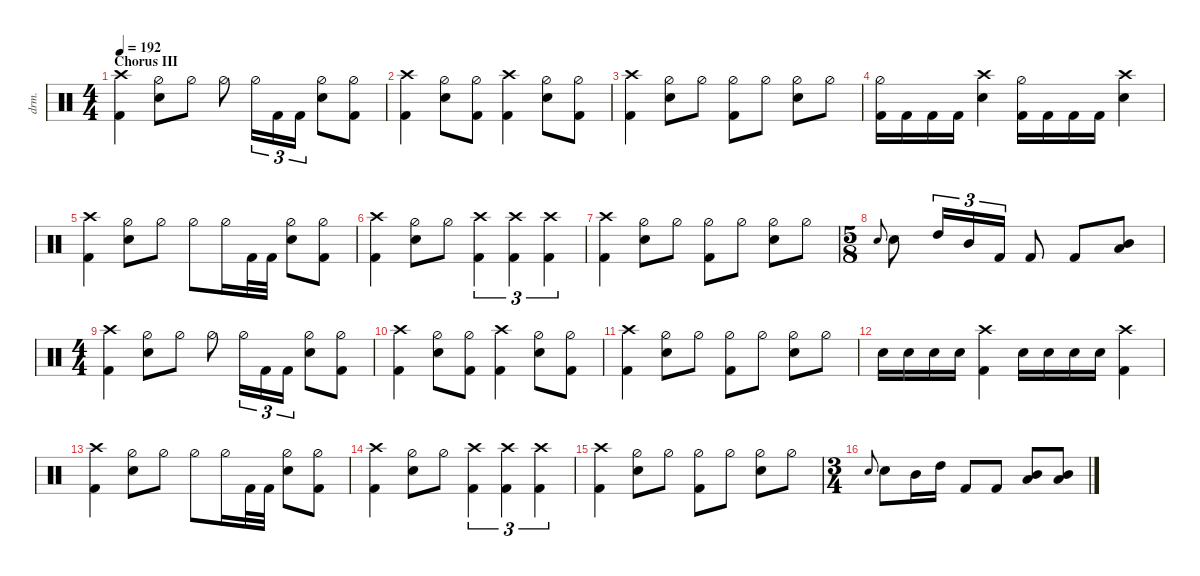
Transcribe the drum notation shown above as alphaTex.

\defaultSystemsLayout 4
\hideDynamics
\bracketExtendMode nobrackets
\otherSystemsTrackNameOrientation horizontal
\track ("Drumkit" "drm.") {defaultSystemsLayout 4 multiBarRest instrument percussion}
\staff
\articulation defaults
\ts (4 4)
\beaming (8 2 2 2 2)
\section ("" "Chorus III")
\tempo 192
\clef neutral
\ks c
("Crash high (hit)" "Kick (hit) 2").4{dy f beam Down} ("Hi-Hat (half)" "Snare (hit) 2").8{beam Down} "Hi-Hat (half)".8{beam Down} "Hi-Hat (half)".8{beam Down} "Hi-Hat (half)".16{tu (3 2) beam Down} "Kick (hit) 2".16{tu (3 2) beam Down} "Kick (hit) 2".16{tu (3 2) beam Down} ("Hi-Hat (half)" "Snare (hit) 2").8{beam Down} ("Hi-Hat (half)" "Kick (hit) 2").8{beam Down} |
("Crash high (hit)" "Kick (hit) 2").4{beam Down} ("Hi-Hat (half)" "Snare (hit) 2").8{beam Down} ("Hi-Hat (half)" "Kick (hit) 2").8{beam Down} ("Crash high (hit)" "Kick (hit) 2").4{beam Down} ("Hi-Hat (half)" "Snare (hit) 2").8{beam Down} ("Hi-Hat (half)" "Kick (hit) 2").8{beam Down} |
("Crash high (hit)" "Kick (hit) 2").4{beam Down} ("Hi-Hat (half)" "Snare (hit) 2").8{beam Down} "Hi-Hat (half)".8{beam Down} ("Hi-Hat (half)" "Kick (hit) 2").8{beam Down} "Hi-Hat (half)".8{beam Down} ("Hi-Hat (half)" "Snare (hit) 2").8{beam Down} "Hi-Hat (half)".8{beam Down} |
("Hi-Hat (half)" "Kick (hit) 2").16{beam Down} "Kick (hit) 2".16{beam Down} "Kick (hit) 2".16{beam Down} "Kick (hit) 2".16{beam Down} ("Crash high (hit)" "Snare (hit) 2").4{beam Down} ("Hi-Hat (half)" "Kick (hit) 2").16{beam Down} "Kick (hit) 2".16{beam Down} "Kick (hit) 2".16{beam Down} "Kick (hit) 2".16{beam Down} ("Crash high (hit)" "Snare (hit) 2").4{beam Down} |
("Crash high (hit)" "Kick (hit) 2").4{beam Down} ("Hi-Hat (half)" "Snare (hit) 2").8{beam Down} "Hi-Hat (half)".8{beam Down} "Hi-Hat (half)".8{beam Down} "Hi-Hat (half)".16{beam Down} "Kick (hit) 2".32{beam Down} "Kick (hit) 2".32{beam Down} ("Hi-Hat (half)" "Snare (hit) 2").8{beam Down} ("Hi-Hat (half)" "Kick (hit) 2").8{beam Down} |
("Crash high (hit)" "Kick (hit) 2").4{beam Down} ("Hi-Hat (half)" "Snare (hit) 2").8{beam Down} "Hi-Hat (half)".8{beam Down} ("Crash high (hit)" "Kick (hit) 2").4{tu (3 2) beam Down} ("Crash high (hit)" "Kick (hit) 2").4{tu (3 2) beam Down} ("Crash high (hit)" "Kick (hit) 2").4{tu (3 2) beam Down} |
("Crash high (hit)" "Kick (hit) 2").4{beam Down} ("Hi-Hat (half)" "Snare (hit) 2").8{beam Down} "Hi-Hat (half)".8{beam Down} ("Hi-Hat (half)" "Kick (hit) 2").8{beam Down} "Hi-Hat (half)".8{beam Down} ("Hi-Hat (half)" "Snare (hit) 2").8{beam Down} "Hi-Hat (half)".8{beam Down} |
\ts (5 8)
\beaming (8 3 2)
"Snare (hit) 2".8{gr onbeat beam Up} "Snare (hit) 2".8{beam Down} "High Tom (hit)".16{tu (3 2) dy fff beam Up} "Mid Tom (hit)".16{tu (3 2) beam Up} "Kick (hit) 2".16{tu (3 2) dy f beam Up} "Kick (hit) 2".8{beam Up} "Kick (hit) 2".8{dy fff beam Up} ("Mid Tom (hit)" "Low Tom (hit)").8{beam Up} |
\ts (4 4)
\beaming (8 2 2 2 2)
("Crash high (hit)" "Kick (hit) 2").4{dy f beam Down} ("Hi-Hat (half)" "Snare (hit) 2").8{beam Down} "Hi-Hat (half)".8{beam Down} "Hi-Hat (half)".8{beam Down} "Hi-Hat (half)".16{tu (3 2) beam Down} "Kick (hit) 2".16{tu (3 2) beam Down} "Kick (hit) 2".16{tu (3 2) beam Down} ("Hi-Hat (half)" "Snare (hit) 2").8{beam Down} ("Hi-Hat (half)" "Kick (hit) 2").8{beam Down} |
("Crash high (hit)" "Kick (hit) 2").4{beam Down} ("Hi-Hat (half)" "Snare (hit) 2").8{beam Down} ("Hi-Hat (half)" "Kick (hit) 2").8{beam Down} ("Crash high (hit)" "Kick (hit) 2").4{beam Down} ("Hi-Hat (half)" "Snare (hit) 2").8{beam Down} ("Hi-Hat (half)" "Kick (hit) 2").8{beam Down} |
("Crash high (hit)" "Kick (hit) 2").4{beam Down} ("Hi-Hat (half)" "Snare (hit) 2").8{beam Down} "Hi-Hat (half)".8{beam Down} ("Hi-Hat (half)" "Kick (hit) 2").8{beam Down} "Hi-Hat (half)".8{beam Down} ("Hi-Hat (half)" "Snare (hit) 2").8{beam Down} "Hi-Hat (half)".8{beam Down} |
"Snare (hit) 2".16{beam Down} "Snare (hit) 2".16{beam Down} "Snare (hit) 2".16{beam Down} "Snare (hit) 2".16{beam Down} ("Crash high (hit)" "Kick (hit) 2").4{beam Down} "Snare (hit) 2".16{beam Down} "Snare (hit) 2".16{beam Down} "Snare (hit) 2".16{beam Down} "Snare (hit) 2".16{beam Down} ("Crash high (hit)" "Kick (hit) 2").4{beam Down} |
("Crash high (hit)" "Kick (hit) 2").4{beam Down} ("Hi-Hat (half)" "Snare (hit) 2").8{beam Down} "Hi-Hat (half)".8{beam Down} "Hi-Hat (half)".8{beam Down} "Hi-Hat (half)".16{beam Down} "Kick (hit) 2".32{beam Down} "Kick (hit) 2".32{beam Down} ("Hi-Hat (half)" "Snare (hit) 2").8{beam Down} ("Hi-Hat (half)" "Kick (hit) 2").8{beam Down} |
("Crash high (hit)" "Kick (hit) 2").4{beam Down} ("Hi-Hat (half)" "Snare (hit) 2").8{beam Down} "Hi-Hat (half)".8{beam Down} ("Crash high (hit)" "Kick (hit) 2").4{tu (3 2) beam Down} ("Crash high (hit)" "Kick (hit) 2").4{tu (3 2) beam Down} ("Crash high (hit)" "Kick (hit) 2").4{tu (3 2) beam Down} |
("Crash high (hit)" "Kick (hit) 2").4{beam Down} ("Hi-Hat (half)" "Snare (hit) 2").8{beam Down} "Hi-Hat (half)".8{beam Down} ("Hi-Hat (half)" "Kick (hit) 2").8{beam Down} "Hi-Hat (half)".8{beam Down} ("Hi-Hat (half)" "Snare (hit) 2").8{beam Down} "Hi-Hat (half)".8{beam Down} |
\ts (3 4)
\beaming (8 2 2 2)
"Snare (hit) 2".8{gr onbeat beam Up} "Snare (hit) 2".8{beam Down} "Mid Tom (hit)".16{beam Down} "High Tom (hit)".16{beam Down} "Kick (hit) 2".8{beam Up} "Kick (hit) 2".8{beam Up} ("Mid Tom (hit)" "Low Tom (hit)").8{dy fff beam Up} ("Mid Tom (hit)" "Low Tom (hit)").8{beam Up}
